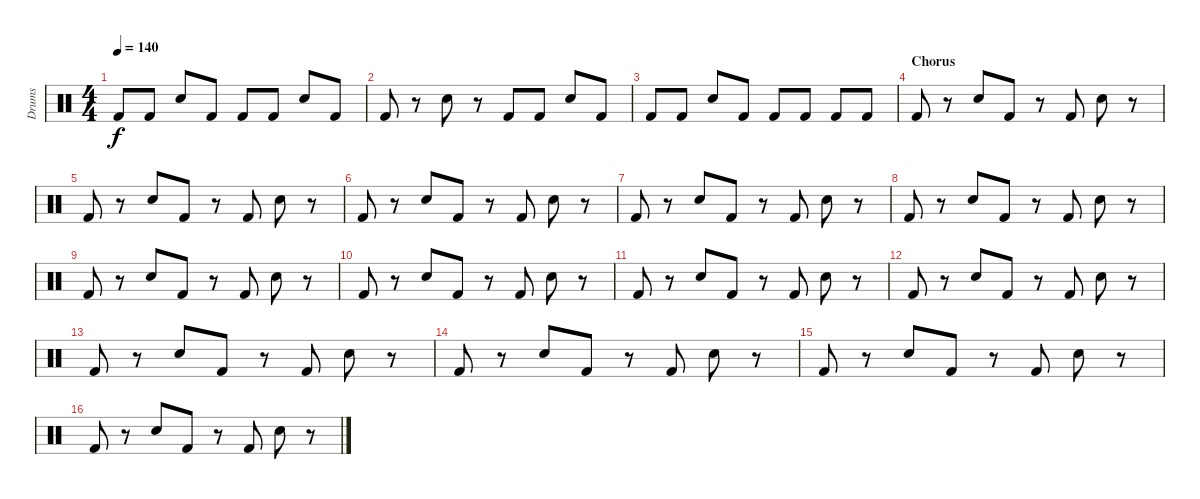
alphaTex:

\track ("Drums" "Drums") {instrument percussion}
\staff {score}
\articulation defaults
\ts (4 4)
\tempo 140
\clef neutral
\ks c "Kick (hit) 2".8{dy f} "Kick (hit) 2".8 "Snare (hit) 2".8 "Kick (hit) 2".8 "Kick (hit) 2".8 "Kick (hit) 2".8 "Snare (hit) 2".8 "Kick (hit) 2".8
|
"Kick (hit) 2".8 r.8 "Snare (hit) 2".8 r.8 "Kick (hit) 2".8 "Kick (hit) 2".8 "Snare (hit) 2".8 "Kick (hit) 2".8 |
"Kick (hit) 2".8 "Kick (hit) 2".8 "Snare (hit) 2".8 "Kick (hit) 2".8 "Kick (hit) 2".8 "Kick (hit) 2".8 "Kick (hit) 2".8 "Kick (hit) 2".8 |
\section ("" "Chorus")
"Kick (hit) 2".8 r.8 "Snare (hit) 2".8 "Kick (hit) 2".8 r.8 "Kick (hit) 2".8 "Snare (hit) 2".8 r.8 |
"Kick (hit) 2".8 r.8 "Snare (hit) 2".8 "Kick (hit) 2".8 r.8 "Kick (hit) 2".8 "Snare (hit) 2".8 r.8 |
"Kick (hit) 2".8 r.8 "Snare (hit) 2".8 "Kick (hit) 2".8 r.8 "Kick (hit) 2".8 "Snare (hit) 2".8 r.8 |
"Kick (hit) 2".8 r.8 "Snare (hit) 2".8 "Kick (hit) 2".8 r.8 "Kick (hit) 2".8 "Snare (hit) 2".8 r.8 |
"Kick (hit) 2".8 r.8 "Snare (hit) 2".8 "Kick (hit) 2".8 r.8 "Kick (hit) 2".8 "Snare (hit) 2".8 r.8 |
"Kick (hit) 2".8 r.8 "Snare (hit) 2".8 "Kick (hit) 2".8 r.8 "Kick (hit) 2".8 "Snare (hit) 2".8 r.8 |
"Kick (hit) 2".8 r.8 "Snare (hit) 2".8 "Kick (hit) 2".8 r.8 "Kick (hit) 2".8 "Snare (hit) 2".8 r.8 |
"Kick (hit) 2".8 r.8 "Snare (hit) 2".8 "Kick (hit) 2".8 r.8 "Kick (hit) 2".8 "Snare (hit) 2".8 r.8 |
"Kick (hit) 2".8 r.8 "Snare (hit) 2".8 "Kick (hit) 2".8 r.8 "Kick (hit) 2".8 "Snare (hit) 2".8 r.8 |
"Kick (hit) 2".8 r.8 "Snare (hit) 2".8 "Kick (hit) 2".8 r.8 "Kick (hit) 2".8 "Snare (hit) 2".8 r.8 |
"Kick (hit) 2".8 r.8 "Snare (hit) 2".8 "Kick (hit) 2".8 r.8 "Kick (hit) 2".8 "Snare (hit) 2".8 r.8 |
"Kick (hit) 2".8 r.8 "Snare (hit) 2".8 "Kick (hit) 2".8 r.8 "Kick (hit) 2".8 "Snare (hit) 2".8 r.8 |
"Kick (hit) 2".8 r.8 "Snare (hit) 2".8 "Kick (hit) 2".8 r.8 "Kick (hit) 2".8 "Snare (hit) 2".8 r.8
